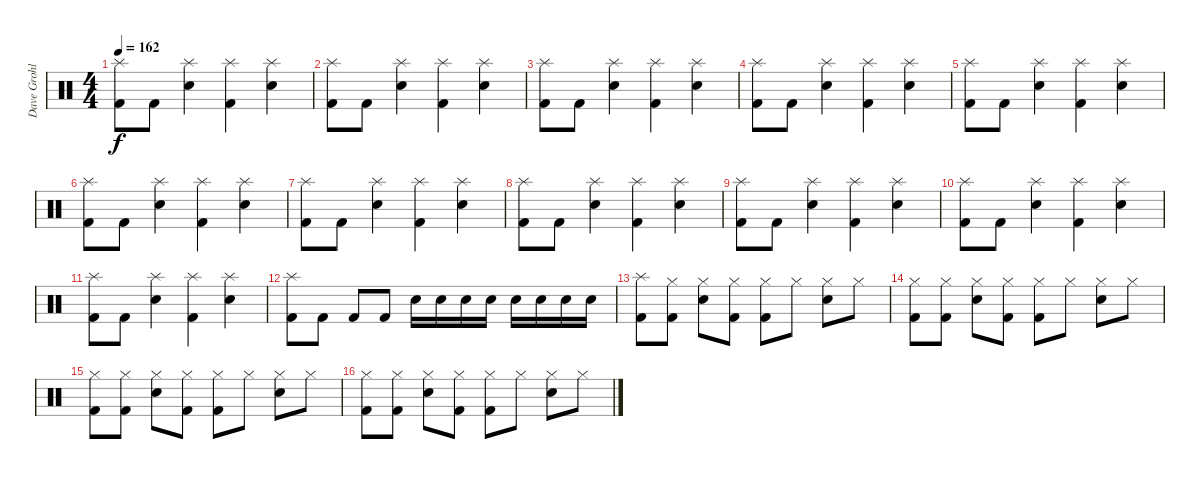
\track ("Dave Grohl : Drums" "Dave Grohl") {instrument percussion}
\staff {score}
\articulation defaults
\ts (4 4)
\tempo 162
\clef neutral
\ks c
("Splash (hit)" "Kick (hit) 2").8{dy f} "Kick (hit) 2".8 ("Splash (hit)" "Snare (hit) 2").4 ("Splash (hit)" "Kick (hit) 2").4 ("Splash (hit)" "Snare (hit) 2").4 |
("Splash (hit)" "Kick (hit) 2").8 "Kick (hit) 2".8 ("Splash (hit)" "Snare (hit) 2").4 ("Splash (hit)" "Kick (hit) 2").4 ("Splash (hit)" "Snare (hit) 2").4 |
("Splash (hit)" "Kick (hit) 2").8 "Kick (hit) 2".8 ("Splash (hit)" "Snare (hit) 2").4 ("Splash (hit)" "Kick (hit) 2").4 ("Splash (hit)" "Snare (hit) 2").4 |
("Splash (hit)" "Kick (hit) 2").8 "Kick (hit) 2".8 ("Splash (hit)" "Snare (hit) 2").4 ("Splash (hit)" "Kick (hit) 2").4 ("Splash (hit)" "Snare (hit) 2").4 |
("Splash (hit)" "Kick (hit) 2").8 "Kick (hit) 2".8 ("Splash (hit)" "Snare (hit) 2").4 ("Splash (hit)" "Kick (hit) 2").4 ("Splash (hit)" "Snare (hit) 2").4 |
("Splash (hit)" "Kick (hit) 2").8 "Kick (hit) 2".8 ("Splash (hit)" "Snare (hit) 2").4 ("Splash (hit)" "Kick (hit) 2").4 ("Splash (hit)" "Snare (hit) 2").4 |
("Splash (hit)" "Kick (hit) 2").8 "Kick (hit) 2".8 ("Splash (hit)" "Snare (hit) 2").4 ("Splash (hit)" "Kick (hit) 2").4 ("Splash (hit)" "Snare (hit) 2").4 |
("Splash (hit)" "Kick (hit) 2").8 "Kick (hit) 2".8 ("Splash (hit)" "Snare (hit) 2").4 ("Splash (hit)" "Kick (hit) 2").4 ("Splash (hit)" "Snare (hit) 2").4 |
("Splash (hit)" "Kick (hit) 2").8 "Kick (hit) 2".8 ("Splash (hit)" "Snare (hit) 2").4 ("Splash (hit)" "Kick (hit) 2").4 ("Splash (hit)" "Snare (hit) 2").4 |
("Splash (hit)" "Kick (hit) 2").8 "Kick (hit) 2".8 ("Splash (hit)" "Snare (hit) 2").4 ("Splash (hit)" "Kick (hit) 2").4 ("Splash (hit)" "Snare (hit) 2").4 |
("Splash (hit)" "Kick (hit) 2").8 "Kick (hit) 2".8 ("Splash (hit)" "Snare (hit) 2").4 ("Splash (hit)" "Kick (hit) 2").4 ("Splash (hit)" "Snare (hit) 2").4 |
("Splash (hit)" "Kick (hit) 2").8 "Kick (hit) 2".8 "Kick (hit) 2".8 "Kick (hit) 2".8 "Snare (hit) 2".16 "Snare (hit) 2".16 "Snare (hit) 2".16 "Snare (hit) 2".16 "Snare (hit) 2".16 "Snare (hit) 2".16 "Snare (hit) 2".16 "Snare (hit) 2".16 |
("Splash (hit)" "Kick (hit) 2").8 ("Hi-Hat (closed)" "Kick (hit) 2").8 ("Hi-Hat (closed)" "Snare (hit) 2").8 ("Hi-Hat (closed)" "Kick (hit) 2").8 ("Hi-Hat (closed)" "Kick (hit) 2").8 "Hi-Hat (closed)".8 ("Hi-Hat (closed)" "Snare (hit) 2").8 "Hi-Hat (closed)".8 |
("Hi-Hat (closed)" "Kick (hit) 2").8 ("Hi-Hat (closed)" "Kick (hit) 2").8 ("Hi-Hat (closed)" "Snare (hit) 2").8 ("Hi-Hat (closed)" "Kick (hit) 2").8 ("Hi-Hat (closed)" "Kick (hit) 2").8 "Hi-Hat (closed)".8 ("Hi-Hat (closed)" "Snare (hit) 2").8 "Hi-Hat (closed)".8 |
("Hi-Hat (closed)" "Kick (hit) 2").8 ("Hi-Hat (closed)" "Kick (hit) 2").8 ("Hi-Hat (closed)" "Snare (hit) 2").8 ("Hi-Hat (closed)" "Kick (hit) 2").8 ("Hi-Hat (closed)" "Kick (hit) 2").8 "Hi-Hat (closed)".8 ("Hi-Hat (closed)" "Snare (hit) 2").8 "Hi-Hat (closed)".8 |
("Hi-Hat (closed)" "Kick (hit) 2").8 ("Hi-Hat (closed)" "Kick (hit) 2").8 ("Hi-Hat (closed)" "Snare (hit) 2").8 ("Hi-Hat (closed)" "Kick (hit) 2").8 ("Hi-Hat (closed)" "Kick (hit) 2").8 "Hi-Hat (closed)".8 ("Hi-Hat (closed)" "Snare (hit) 2").8 "Hi-Hat (closed)".8
